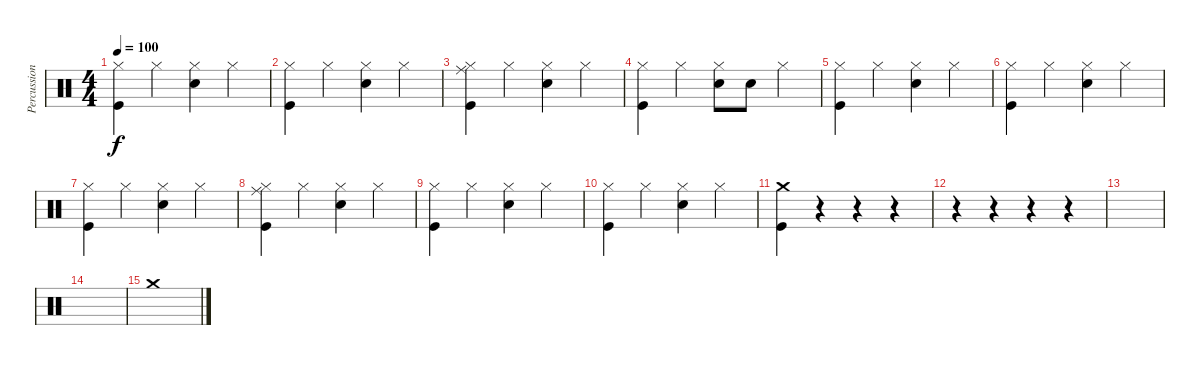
\track ("Percussion" "Percussion") {instrument percussion}
\staff {score}
\articulation defaults
\ts (4 4)
\tempo 100
\clef neutral
\ks c
("Hi-Hat (closed)" "Kick (hit)").4{dy f} "Hi-Hat (closed)".4 ("Hi-Hat (closed)" "Electric Snare (hit)").4 "Hi-Hat (closed)".4 |
("Hi-Hat (closed)" "Kick (hit)").4 "Hi-Hat (closed)".4 ("Hi-Hat (closed)" "Electric Snare (hit)").4 "Hi-Hat (closed)".4 |
("Hi-Hat (closed)" "Kick (hit)" "Ride (middle)").4 "Hi-Hat (closed)".4 ("Hi-Hat (closed)" "Electric Snare (hit)").4 "Hi-Hat (closed)".4 |
("Hi-Hat (closed)" "Kick (hit)").4 "Hi-Hat (closed)".4 ("Hi-Hat (closed)" "Electric Snare (hit)").8 "Electric Snare (hit)".8 "Hi-Hat (closed)".4 |
("Hi-Hat (closed)" "Kick (hit)").4 "Hi-Hat (closed)".4 ("Hi-Hat (closed)" "Electric Snare (hit)").4 "Hi-Hat (closed)".4 |
("Hi-Hat (closed)" "Kick (hit)").4 "Hi-Hat (closed)".4 ("Hi-Hat (closed)" "Electric Snare (hit)").4 "Hi-Hat (closed)".4 |
("Hi-Hat (closed)" "Kick (hit)").4 "Hi-Hat (closed)".4 ("Hi-Hat (closed)" "Electric Snare (hit)").4 "Hi-Hat (closed)".4 |
("Hi-Hat (closed)" "Kick (hit)" "Ride (middle)").4 "Hi-Hat (closed)".4 ("Hi-Hat (closed)" "Electric Snare (hit)").4 "Hi-Hat (closed)".4 |
("Hi-Hat (closed)" "Kick (hit)").4 "Hi-Hat (closed)".4 ("Hi-Hat (closed)" "Electric Snare (hit)").4 "Hi-Hat (closed)".4 |
("Hi-Hat (closed)" "Kick (hit)").4 "Hi-Hat (closed)".4 ("Hi-Hat (closed)" "Electric Snare (hit)").4 "Hi-Hat (closed)".4 |
("Crash medium (hit)" "Kick (hit)").4 r.4 r.4 r.4 |
r.4 r.4 r.4 r.4 |
|
|
"Crash medium (hit)".1
